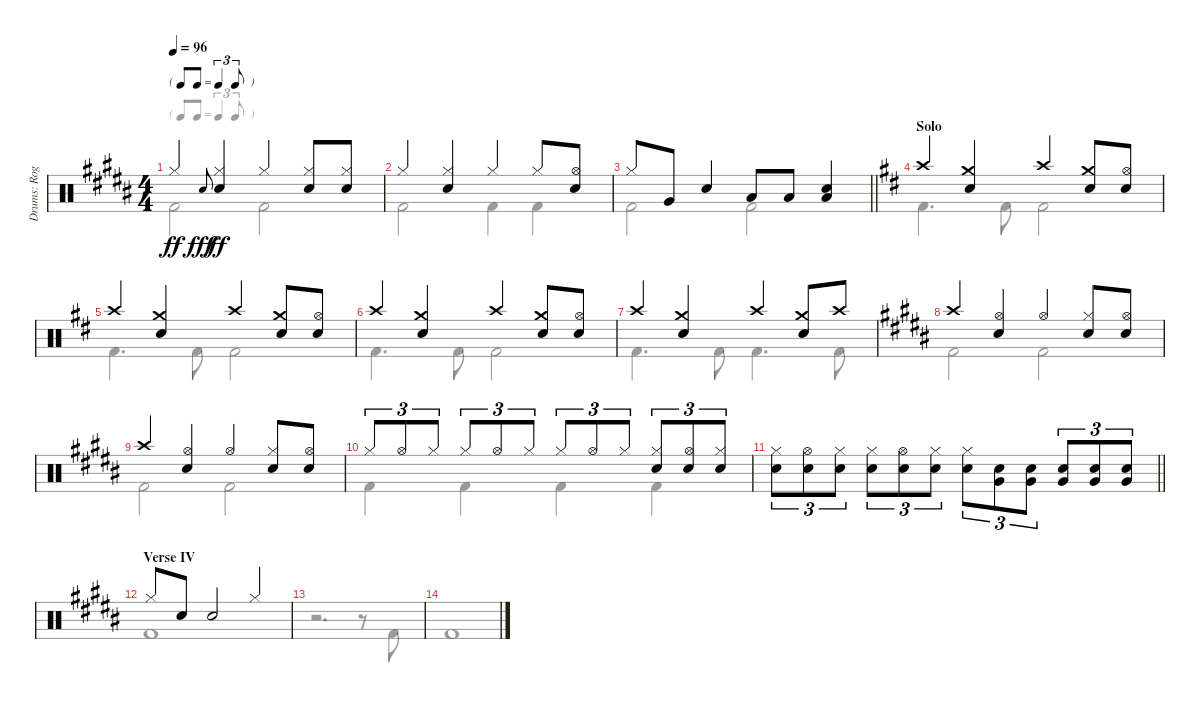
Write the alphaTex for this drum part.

\track ("Drums: Roger" "Drums: Rog") {instrument percussion}
\staff {score}
\articulation defaults
\voice
\ts (4 4)
\tf triplet8th
\tempo 96
\clef neutral
\ks b "Hi-Hat (closed)".4{dy ff} "Electric Snare (hit)".8{gr onbeat dy fff}
("Hi-Hat (closed)" "Snare (hit) 2").4{dy ff} "Hi-Hat (closed)".4 ("Hi-Hat (closed)" "Snare (hit) 2").8 ("Hi-Hat (closed)" "Snare (hit) 2").8 |
"Hi-Hat (closed)".4 ("Hi-Hat (closed)" "Snare (hit) 2").4 "Hi-Hat (closed)".4 "Hi-Hat (closed)".8 ("Hi-Hat (open)" "Snare (hit) 2").8 |
\barLineRight lightlight "Hi-Hat (closed)".8 "Very Low Tom (hit)".8 "Snare (hit) 2".4 "Low Tom (hit)".8 "Low Tom (hit)".8
("Snare (hit) 2" "Low Tom (hit)").4 |
\section ("" "Solo")
\ks d "Crash high (hit)".4
("Crash medium (hit)" "Snare (hit) 2").4 "Crash high (hit)".4 ("Crash medium (hit)" "Snare (hit) 2").8 ("Hi-Hat (open)" "Snare (hit) 2").8 |
"Crash high (hit)".4 ("Crash medium (hit)" "Snare (hit) 2").4 "Crash high (hit)".4 ("Crash medium (hit)" "Snare (hit) 2").8 ("Hi-Hat (open)" "Snare (hit) 2").8 |
"Crash high (hit)".4 ("Crash medium (hit)" "Snare (hit) 2").4 "Crash high (hit)".4 ("Crash medium (hit)" "Snare (hit) 2").8 ("Hi-Hat (open)" "Snare (hit) 2").8 |
"Crash high (hit)".4 ("Crash medium (hit)" "Snare (hit) 2").4 "Crash high (hit)".4 ("Crash medium (hit)" "Snare (hit) 2").8 "Crash high (hit)".8 |
\ks b "Crash high (hit)".4
("Hi-Hat (open)" "Snare (hit) 2").4 "Hi-Hat (open)".4 ("Hi-Hat (closed)" "Snare (hit) 2").8 ("Hi-Hat (open)" "Snare (hit) 2").8 |
"Crash high (hit)".4 ("Hi-Hat (open)" "Snare (hit) 2").4 "Hi-Hat (open)".4 ("Hi-Hat (closed)" "Snare (hit) 2").8 ("Hi-Hat (open)" "Snare (hit) 2").8 |
"Hi-Hat (closed)".8{tu (3 2)} "Hi-Hat (open)".8{tu (3 2)} "Hi-Hat (closed)".8{tu (3 2)} "Hi-Hat (closed)".8{tu (3 2)} "Hi-Hat (open)".8{tu (3 2)} "Hi-Hat (closed)".8{tu (3 2)} "Hi-Hat (closed)".8{tu (3 2)} "Hi-Hat (open)".8{tu (3 2)} "Hi-Hat (closed)".8{tu (3 2)} ("Hi-Hat (closed)" "Snare (hit) 2").8{tu (3 2)} ("Hi-Hat (open)" "Snare (hit) 2").8{tu (3 2)} ("Hi-Hat (closed)" "Snare (hit) 2").8{tu (3 2)} |
\barLineRight lightlight
("Hi-Hat (closed)" "Snare (hit) 2").8{tu (3 2)} ("Hi-Hat (open)" "Snare (hit) 2").8{tu (3 2)} ("Hi-Hat (closed)" "Snare (hit) 2").8{tu (3 2)} ("Hi-Hat (closed)" "Snare (hit) 2").8{tu (3 2)} ("Hi-Hat (open)" "Snare (hit) 2").8{tu (3 2)} ("Hi-Hat (closed)" "Snare (hit) 2").8{tu (3 2)} ("Hi-Hat (closed)" "Snare (hit) 2").8{tu (3 2)} ("Snare (hit) 2" "Very Low Tom (hit)").8{tu (3 2)} ("Snare (hit) 2" "Very Low Tom (hit)").8{tu (3 2)} ("Snare (hit) 2" "Very Low Tom (hit)").8{tu (3 2)} ("Snare (hit) 2" "Very Low Tom (hit)").8{tu (3 2)} ("Snare (hit) 2" "Very Low Tom (hit)").8{tu (3 2)} |
\section ("" "Verse IV")
"Hi-Hat (closed)".8 "Snare (hit) 2".8 "Snare (hit) 2".2 "Hi-Hat (closed)".4 |
|
|
|
\voice
\clef neutral
\ottava regular
\simile none
\ks b "Kick (hit) 2".2{dy ff} "Kick (hit) 2".2
|
"Kick (hit) 2".2 "Kick (hit) 2".4 "Kick (hit) 2".4 |
\barLineRight lightlight "Kick (hit) 2".2 "Kick (hit) 2".2
|
\ks d "Kick (hit) 2".4{d} "Kick (hit) 2".8 "Kick (hit) 2".2
|
"Kick (hit) 2".4{d} "Kick (hit) 2".8 "Kick (hit) 2".2 |
"Kick (hit) 2".4{d} "Kick (hit) 2".8 "Kick (hit) 2".2 |
"Kick (hit) 2".4{d} "Kick (hit) 2".8 "Kick (hit) 2".4{d} "Kick (hit) 2".8 |
\ks b "Kick (hit) 2".2 "Kick (hit) 2".2
|
"Kick (hit) 2".2 "Kick (hit) 2".2 |
"Kick (hit) 2".4 "Kick (hit) 2".4 "Kick (hit) 2".4 "Kick (hit) 2".4 |
\barLineRight lightlight
|
"Kick (hit) 2".1 |
r.2{d} r.8 "Kick (hit) 2".8 |
"Kick (hit) 2".1 |
|
